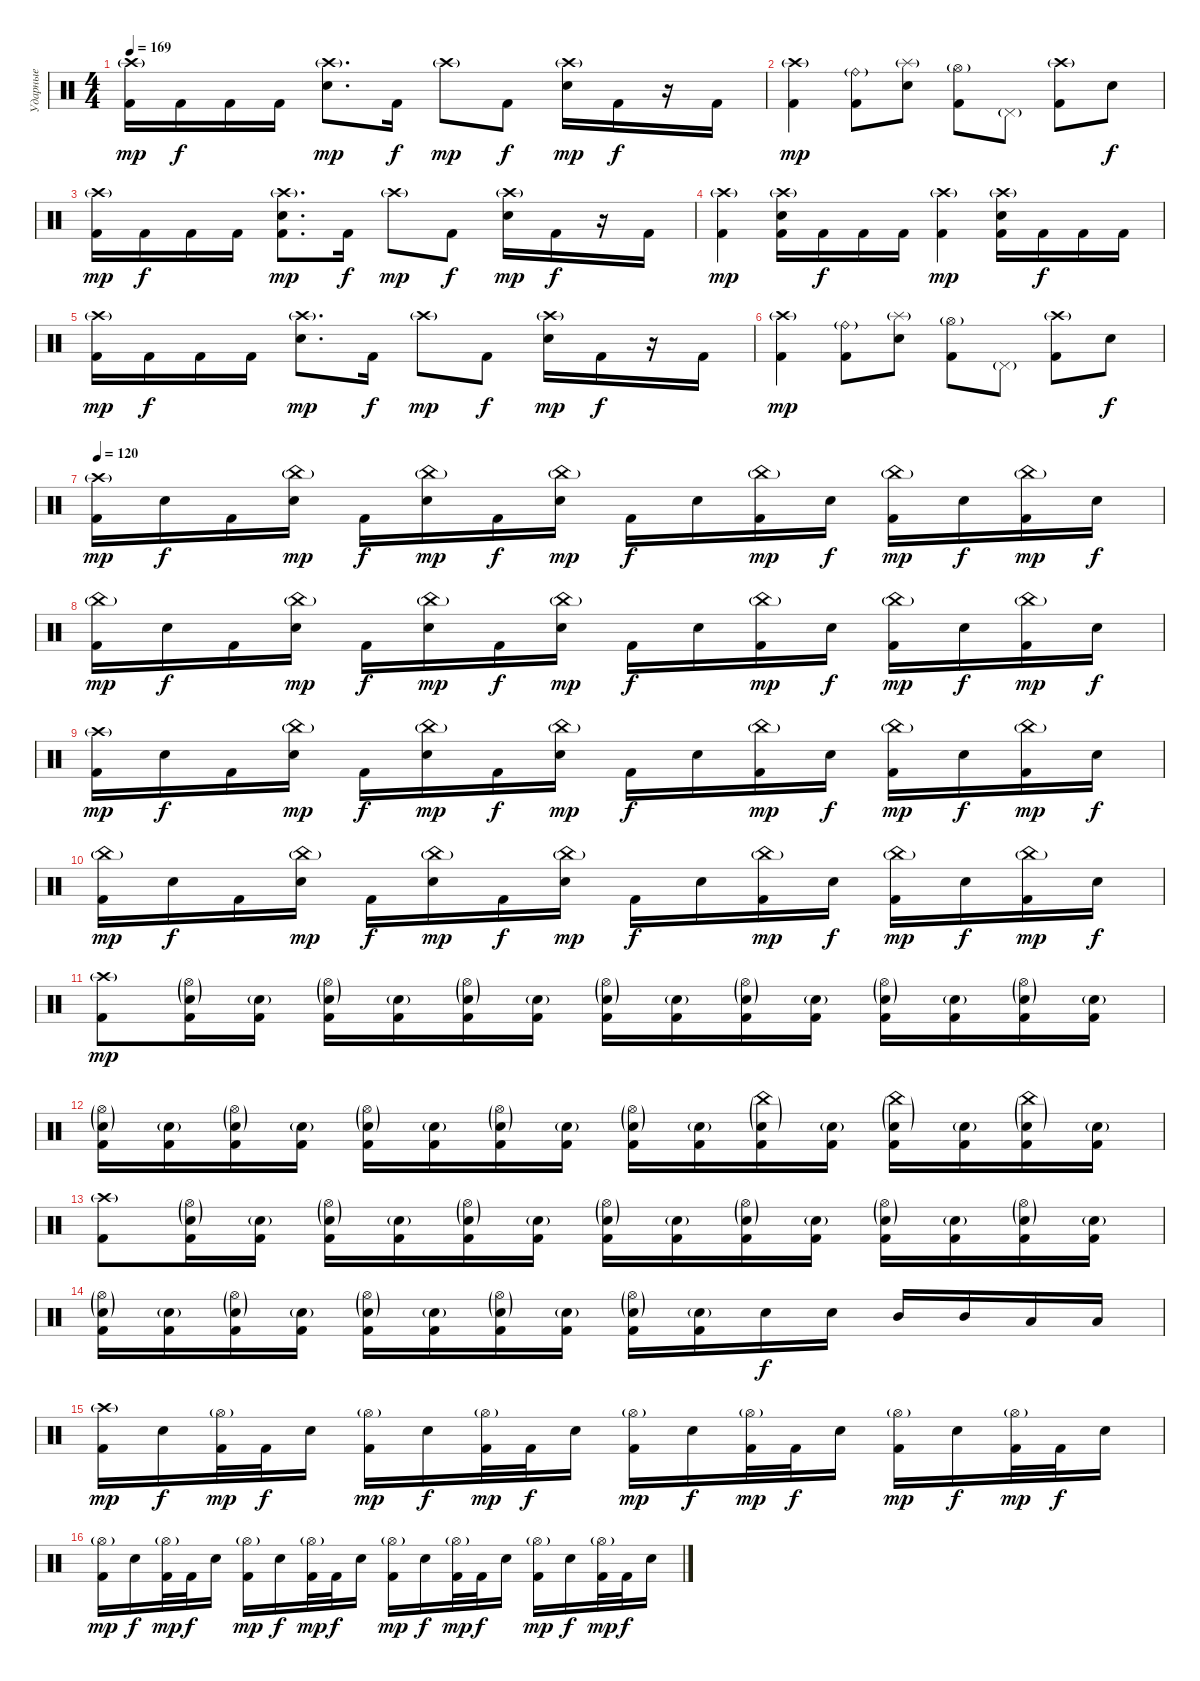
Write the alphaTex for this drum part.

\track ("Ударные" "Ударные") {instrument percussion}
\staff {score}
\articulation defaults
\ts (4 4)
\tempo 169
\clef neutral
\ks c
("Crash high (hit)"{g} "Kick (hit) 2").16{dy mp} "Kick (hit) 2".16{dy f} "Kick (hit) 2".16 "Kick (hit) 2".16 ("Crash high (hit)"{g} "Electric Snare (hit)").8{d dy mp} "Kick (hit) 2".16{dy f} "Crash high (hit)"{g}.8{dy mp} "Kick (hit) 2".8{dy f} ("Crash high (hit)"{g} "Electric Snare (hit)").16{dy mp} "Kick (hit) 2".16{dy f} r.16 "Kick (hit) 2".16 |
("Crash high (hit)"{g} "Kick (hit) 2").4{dy mp} ("Ride (bell)"{g} "Kick (hit) 2").8 ("Splash (hit)"{g} "Electric Snare (hit)").8 ("Hi-Hat (open)"{g} "Kick (hit) 2").8 "Pedal Hi-Hat (hit)"{g}.8 ("Crash high (hit)"{g} "Kick (hit) 2").8 "Electric Snare (hit)".8{dy f} |
("Crash high (hit)"{g} "Kick (hit) 2").16{dy mp} "Kick (hit) 2".16{dy f} "Kick (hit) 2".16 "Kick (hit) 2".16 ("Crash high (hit)"{g} "Electric Snare (hit)" "Kick (hit) 2").8{d dy mp} "Kick (hit) 2".16{dy f} "Crash high (hit)"{g}.8{dy mp} "Kick (hit) 2".8{dy f} ("Crash high (hit)"{g} "Electric Snare (hit)").16{dy mp} "Kick (hit) 2".16{dy f} r.16 "Kick (hit) 2".16 |
("Crash high (hit)"{g} "Kick (hit) 2").4{dy mp} ("Crash high (hit)"{g} "Electric Snare (hit)" "Kick (hit) 2").16 "Kick (hit) 2".16{dy f} "Kick (hit) 2".16 "Kick (hit) 2".16 ("Crash high (hit)"{g} "Kick (hit) 2").4{dy mp} ("Crash high (hit)"{g} "Electric Snare (hit)" "Kick (hit) 2").16 "Kick (hit) 2".16{dy f} "Kick (hit) 2".16 "Kick (hit) 2".16 |
("Crash high (hit)"{g} "Kick (hit) 2").16{dy mp} "Kick (hit) 2".16{dy f} "Kick (hit) 2".16 "Kick (hit) 2".16 ("Crash high (hit)"{g} "Electric Snare (hit)").8{d dy mp} "Kick (hit) 2".16{dy f} "Crash high (hit)"{g}.8{dy mp} "Kick (hit) 2".8{dy f} ("Crash high (hit)"{g} "Electric Snare (hit)").16{dy mp} "Kick (hit) 2".16{dy f} r.16 "Kick (hit) 2".16 |
("Crash high (hit)"{g} "Kick (hit) 2").4{dy mp} ("Ride (bell)"{g} "Kick (hit) 2").8 ("Splash (hit)"{g} "Electric Snare (hit)").8 ("Hi-Hat (open)"{g} "Kick (hit) 2").8 "Pedal Hi-Hat (hit)"{g}.8 ("Crash high (hit)"{g} "Kick (hit) 2").8 "Electric Snare (hit)".8{dy f} |
\tempo 120
("Crash high (hit)"{g} "Kick (hit) 2").16{dy mp} "Electric Snare (hit)".16{dy f} "Kick (hit) 2".16 ("China (hit)"{g} "Electric Snare (hit)").16{dy mp} "Kick (hit) 2".16{dy f} ("China (hit)"{g} "Electric Snare (hit)").16{dy mp} "Kick (hit) 2".16{dy f} ("China (hit)"{g} "Electric Snare (hit)").16{dy mp} "Kick (hit) 2".16{dy f} "Electric Snare (hit)".16 ("China (hit)"{g} "Kick (hit) 2").16{dy mp} "Electric Snare (hit)".16{dy f} ("China (hit)"{g} "Kick (hit) 2").16{dy mp} "Electric Snare (hit)".16{dy f} ("China (hit)"{g} "Kick (hit) 2").16{dy mp} "Electric Snare (hit)".16{dy f} |
("China (hit)"{g} "Kick (hit) 2").16{dy mp} "Electric Snare (hit)".16{dy f} "Kick (hit) 2".16 ("China (hit)"{g} "Electric Snare (hit)").16{dy mp} "Kick (hit) 2".16{dy f} ("China (hit)"{g} "Electric Snare (hit)").16{dy mp} "Kick (hit) 2".16{dy f} ("China (hit)"{g} "Electric Snare (hit)").16{dy mp} "Kick (hit) 2".16{dy f} "Electric Snare (hit)".16 ("China (hit)"{g} "Kick (hit) 2").16{dy mp} "Electric Snare (hit)".16{dy f} ("China (hit)"{g} "Kick (hit) 2").16{dy mp} "Electric Snare (hit)".16{dy f} ("China (hit)"{g} "Kick (hit) 2").16{dy mp} "Electric Snare (hit)".16{dy f} |
("Crash high (hit)"{g} "Kick (hit) 2").16{dy mp} "Electric Snare (hit)".16{dy f} "Kick (hit) 2".16 ("China (hit)"{g} "Electric Snare (hit)").16{dy mp} "Kick (hit) 2".16{dy f} ("China (hit)"{g} "Electric Snare (hit)").16{dy mp} "Kick (hit) 2".16{dy f} ("China (hit)"{g} "Electric Snare (hit)").16{dy mp} "Kick (hit) 2".16{dy f} "Electric Snare (hit)".16 ("China (hit)"{g} "Kick (hit) 2").16{dy mp} "Electric Snare (hit)".16{dy f} ("China (hit)"{g} "Kick (hit) 2").16{dy mp} "Electric Snare (hit)".16{dy f} ("China (hit)"{g} "Kick (hit) 2").16{dy mp} "Electric Snare (hit)".16{dy f} |
("China (hit)"{g} "Kick (hit) 2").16{dy mp} "Electric Snare (hit)".16{dy f} "Kick (hit) 2".16 ("China (hit)"{g} "Electric Snare (hit)").16{dy mp} "Kick (hit) 2".16{dy f} ("China (hit)"{g} "Electric Snare (hit)").16{dy mp} "Kick (hit) 2".16{dy f} ("China (hit)"{g} "Electric Snare (hit)").16{dy mp} "Kick (hit) 2".16{dy f} "Electric Snare (hit)".16 ("China (hit)"{g} "Kick (hit) 2").16{dy mp} "Electric Snare (hit)".16{dy f} ("China (hit)"{g} "Kick (hit) 2").16{dy mp} "Electric Snare (hit)".16{dy f} ("China (hit)"{g} "Kick (hit) 2").16{dy mp} "Electric Snare (hit)".16{dy f} |
("Crash high (hit)"{g} "Kick (hit) 2").8{dy mp} ("Hi-Hat (open)"{g} "Electric Snare (hit)"{g} "Kick (hit) 2").16 ("Electric Snare (hit)"{g} "Kick (hit) 2").16 ("Hi-Hat (open)"{g} "Electric Snare (hit)"{g} "Kick (hit) 2").16 ("Electric Snare (hit)"{g} "Kick (hit) 2").16 ("Hi-Hat (open)"{g} "Electric Snare (hit)"{g} "Kick (hit) 2").16 ("Electric Snare (hit)"{g} "Kick (hit) 2").16 ("Hi-Hat (open)"{g} "Electric Snare (hit)"{g} "Kick (hit) 2").16 ("Electric Snare (hit)"{g} "Kick (hit) 2").16 ("Hi-Hat (open)"{g} "Electric Snare (hit)"{g} "Kick (hit) 2").16 ("Electric Snare (hit)"{g} "Kick (hit) 2").16 ("Hi-Hat (open)"{g} "Electric Snare (hit)"{g} "Kick (hit) 2").16 ("Electric Snare (hit)"{g} "Kick (hit) 2").16 ("Hi-Hat (open)"{g} "Electric Snare (hit)"{g} "Kick (hit) 2").16 ("Electric Snare (hit)"{g} "Kick (hit) 2").16 |
("Hi-Hat (open)"{g} "Electric Snare (hit)"{g} "Kick (hit) 2").16 ("Electric Snare (hit)"{g} "Kick (hit) 2").16 ("Hi-Hat (open)"{g} "Electric Snare (hit)"{g} "Kick (hit) 2").16 ("Electric Snare (hit)"{g} "Kick (hit) 2").16 ("Hi-Hat (open)"{g} "Electric Snare (hit)"{g} "Kick (hit) 2").16 ("Electric Snare (hit)"{g} "Kick (hit) 2").16 ("Hi-Hat (open)"{g} "Electric Snare (hit)"{g} "Kick (hit) 2").16 ("Electric Snare (hit)"{g} "Kick (hit) 2").16 ("Hi-Hat (open)"{g} "Electric Snare (hit)"{g} "Kick (hit) 2").16 ("Electric Snare (hit)"{g} "Kick (hit) 2").16 ("China (hit)"{g} "Electric Snare (hit)"{g} "Kick (hit) 2").16 ("Electric Snare (hit)"{g} "Kick (hit) 2").16 ("China (hit)"{g} "Electric Snare (hit)"{g} "Kick (hit) 2").16 ("Electric Snare (hit)"{g} "Kick (hit) 2").16 ("China (hit)"{g} "Electric Snare (hit)"{g} "Kick (hit) 2").16 ("Electric Snare (hit)"{g} "Kick (hit) 2").16 |
("Crash high (hit)"{g} "Kick (hit) 2").8 ("Hi-Hat (open)"{g} "Electric Snare (hit)"{g} "Kick (hit) 2").16 ("Electric Snare (hit)"{g} "Kick (hit) 2").16 ("Hi-Hat (open)"{g} "Electric Snare (hit)"{g} "Kick (hit) 2").16 ("Electric Snare (hit)"{g} "Kick (hit) 2").16 ("Hi-Hat (open)"{g} "Electric Snare (hit)"{g} "Kick (hit) 2").16 ("Electric Snare (hit)"{g} "Kick (hit) 2").16 ("Hi-Hat (open)"{g} "Electric Snare (hit)"{g} "Kick (hit) 2").16 ("Electric Snare (hit)"{g} "Kick (hit) 2").16 ("Hi-Hat (open)"{g} "Electric Snare (hit)"{g} "Kick (hit) 2").16 ("Electric Snare (hit)"{g} "Kick (hit) 2").16 ("Hi-Hat (open)"{g} "Electric Snare (hit)"{g} "Kick (hit) 2").16 ("Electric Snare (hit)"{g} "Kick (hit) 2").16 ("Hi-Hat (open)"{g} "Electric Snare (hit)"{g} "Kick (hit) 2").16 ("Electric Snare (hit)"{g} "Kick (hit) 2").16 |
("Hi-Hat (open)"{g} "Electric Snare (hit)"{g} "Kick (hit) 2").16 ("Electric Snare (hit)"{g} "Kick (hit) 2").16 ("Hi-Hat (open)"{g} "Electric Snare (hit)"{g} "Kick (hit) 2").16 ("Electric Snare (hit)"{g} "Kick (hit) 2").16 ("Hi-Hat (open)"{g} "Electric Snare (hit)"{g} "Kick (hit) 2").16 ("Electric Snare (hit)"{g} "Kick (hit) 2").16 ("Hi-Hat (open)"{g} "Electric Snare (hit)"{g} "Kick (hit) 2").16 ("Electric Snare (hit)"{g} "Kick (hit) 2").16 ("Hi-Hat (open)"{g} "Electric Snare (hit)"{g} "Kick (hit) 2").16 ("Electric Snare (hit)"{g} "Kick (hit) 2").16 "Electric Snare (hit)".16{dy f} "Electric Snare (hit)".16 "Mid Tom (hit)".16 "Mid Tom (hit)".16 "Low Tom (hit)".16 "Low Tom (hit)".16 |
("Crash high (hit)"{g} "Kick (hit) 2").16{dy mp} "Electric Snare (hit)".16{dy f} ("Hi-Hat (open)"{g} "Kick (hit) 2").32{dy mp} "Kick (hit) 2".32{dy f} "Electric Snare (hit)".16 ("Hi-Hat (open)"{g} "Kick (hit) 2").16{dy mp} "Electric Snare (hit)".16{dy f} ("Hi-Hat (open)"{g} "Kick (hit) 2").32{dy mp} "Kick (hit) 2".32{dy f} "Electric Snare (hit)".16 ("Hi-Hat (open)"{g} "Kick (hit) 2").16{dy mp} "Electric Snare (hit)".16{dy f} ("Hi-Hat (open)"{g} "Kick (hit) 2").32{dy mp} "Kick (hit) 2".32{dy f} "Electric Snare (hit)".16 ("Hi-Hat (open)"{g} "Kick (hit) 2").16{dy mp} "Electric Snare (hit)".16{dy f} ("Hi-Hat (open)"{g} "Kick (hit) 2").32{dy mp} "Kick (hit) 2".32{dy f} "Electric Snare (hit)".16 |
("Hi-Hat (open)"{g} "Kick (hit) 2").16{dy mp} "Electric Snare (hit)".16{dy f} ("Hi-Hat (open)"{g} "Kick (hit) 2").32{dy mp} "Kick (hit) 2".32{dy f} "Electric Snare (hit)".16 ("Hi-Hat (open)"{g} "Kick (hit) 2").16{dy mp} "Electric Snare (hit)".16{dy f} ("Hi-Hat (open)"{g} "Kick (hit) 2").32{dy mp} "Kick (hit) 2".32{dy f} "Electric Snare (hit)".16 ("Hi-Hat (open)"{g} "Kick (hit) 2").16{dy mp} "Electric Snare (hit)".16{dy f} ("Hi-Hat (open)"{g} "Kick (hit) 2").32{dy mp} "Kick (hit) 2".32{dy f} "Electric Snare (hit)".16 ("Hi-Hat (open)"{g} "Kick (hit) 2").16{dy mp} "Electric Snare (hit)".16{dy f} ("Hi-Hat (open)"{g} "Kick (hit) 2").32{dy mp} "Kick (hit) 2".32{dy f} "Electric Snare (hit)".16
